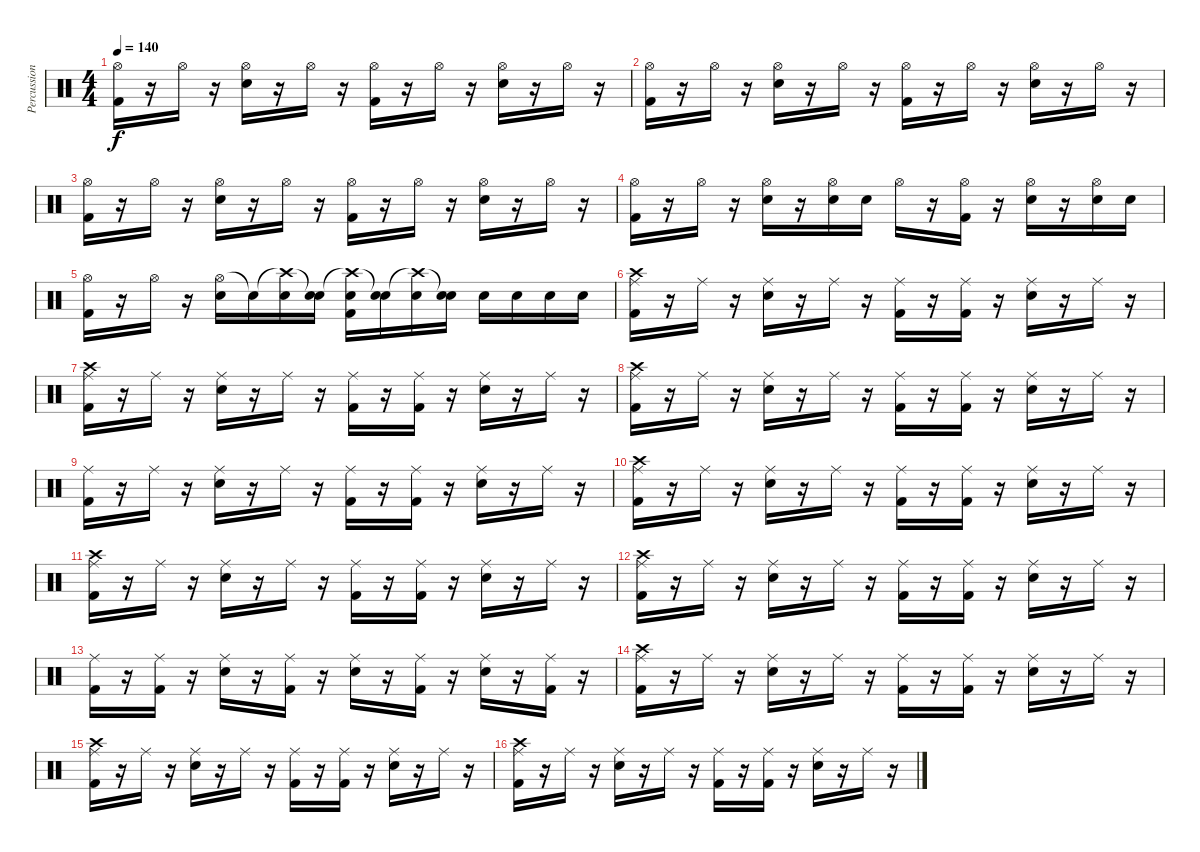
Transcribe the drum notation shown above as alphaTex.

\track ("Percussion" "Percussion") {instrument percussion}
\staff {score}
\articulation defaults
\ts (4 4)
\tempo 140
\clef neutral
\ks c
("Hi-Hat (open)" "Kick (hit) 2").16{dy f} r.16 "Hi-Hat (open)".16 r.16 ("Hi-Hat (open)" "Electric Snare (hit)").16 r.16 "Hi-Hat (open)".16 r.16 ("Hi-Hat (open)" "Kick (hit) 2").16 r.16 "Hi-Hat (open)".16 r.16 ("Hi-Hat (open)" "Electric Snare (hit)").16 r.16 "Hi-Hat (open)".16 r.16 |
("Hi-Hat (open)" "Kick (hit) 2").16 r.16 "Hi-Hat (open)".16 r.16 ("Hi-Hat (open)" "Electric Snare (hit)").16 r.16 "Hi-Hat (open)".16 r.16 ("Hi-Hat (open)" "Kick (hit) 2").16 r.16 "Hi-Hat (open)".16 r.16 ("Hi-Hat (open)" "Electric Snare (hit)").16 r.16 "Hi-Hat (open)".16 r.16 |
("Hi-Hat (open)" "Kick (hit) 2").16 r.16 "Hi-Hat (open)".16 r.16 ("Hi-Hat (open)" "Electric Snare (hit)").16 r.16 "Hi-Hat (open)".16 r.16 ("Hi-Hat (open)" "Kick (hit) 2").16 r.16 "Hi-Hat (open)".16 r.16 ("Hi-Hat (open)" "Electric Snare (hit)").16 r.16 "Hi-Hat (open)".16 r.16 |
("Hi-Hat (open)" "Kick (hit) 2").16 r.16 "Hi-Hat (open)".16 r.16 ("Hi-Hat (open)" "Electric Snare (hit)").16 r.16 ("Hi-Hat (open)" "Electric Snare (hit)").16 "Electric Snare (hit)".16 "Hi-Hat (open)".16 r.16 ("Hi-Hat (open)" "Kick (hit) 2").16 r.16 ("Hi-Hat (open)" "Electric Snare (hit)").16 r.16 ("Hi-Hat (open)" "Electric Snare (hit)").16 "Electric Snare (hit)".16 |
("Hi-Hat (open)" "Kick (hit) 2").16 r.16 "Hi-Hat (open)".16 r.16 ("Hi-Hat (open)" "Electric Snare (hit)").16 "Snare (hit)"{t}.16 ("Crash high (hit)"{t} "Electric Snare (hit)").16 ("Snare (hit)"{t} "Electric Snare (hit)").16 ("Crash high (hit)"{t} "Electric Snare (hit)" "Kick (hit) 2").16 ("Snare (hit)"{t} "Electric Snare (hit)").16 ("Crash high (hit)"{t} "Electric Snare (hit)").16 ("Snare (hit)"{t} "Electric Snare (hit)").16 "Electric Snare (hit)".16 "Electric Snare (hit)".16 "Electric Snare (hit)".16 "Electric Snare (hit)".16 |
("Ride (middle)" "Crash high (hit)" "Kick (hit) 2").16 r.16 "Ride (middle)".16 r.16 ("Ride (middle)" "Electric Snare (hit)").16 r.16 "Ride (middle)".16 r.16 ("Ride (middle)" "Kick (hit) 2").16 r.16 ("Ride (middle)" "Kick (hit) 2").16 r.16 ("Ride (middle)" "Electric Snare (hit)").16 r.16 "Ride (middle)".16 r.16 |
("Ride (middle)" "Crash high (hit)" "Kick (hit) 2").16 r.16 "Ride (middle)".16 r.16 ("Ride (middle)" "Electric Snare (hit)").16 r.16 "Ride (middle)".16 r.16 ("Ride (middle)" "Kick (hit) 2").16 r.16 ("Ride (middle)" "Kick (hit) 2").16 r.16 ("Ride (middle)" "Electric Snare (hit)").16 r.16 "Ride (middle)".16 r.16 |
("Ride (middle)" "Crash high (hit)" "Kick (hit) 2").16 r.16 "Ride (middle)".16 r.16 ("Ride (middle)" "Electric Snare (hit)").16 r.16 "Ride (middle)".16 r.16 ("Ride (middle)" "Kick (hit) 2").16 r.16 ("Ride (middle)" "Kick (hit) 2").16 r.16 ("Ride (middle)" "Electric Snare (hit)").16 r.16 "Ride (middle)".16 r.16 |
("Ride (middle)" "Kick (hit) 2").16 r.16 "Ride (middle)".16 r.16 ("Ride (middle)" "Electric Snare (hit)").16 r.16 "Ride (middle)".16 r.16 ("Ride (middle)" "Kick (hit) 2").16 r.16 ("Ride (middle)" "Kick (hit) 2").16 r.16 ("Ride (middle)" "Electric Snare (hit)").16 r.16 "Ride (middle)".16 r.16 |
("Ride (middle)" "Crash high (hit)" "Kick (hit) 2").16 r.16 "Ride (middle)".16 r.16 ("Ride (middle)" "Electric Snare (hit)").16 r.16 "Ride (middle)".16 r.16 ("Ride (middle)" "Kick (hit) 2").16 r.16 ("Ride (middle)" "Kick (hit) 2").16 r.16 ("Ride (middle)" "Electric Snare (hit)").16 r.16 "Ride (middle)".16 r.16 |
("Ride (middle)" "Crash high (hit)" "Kick (hit) 2").16 r.16 "Ride (middle)".16 r.16 ("Ride (middle)" "Electric Snare (hit)").16 r.16 "Ride (middle)".16 r.16 ("Ride (middle)" "Kick (hit) 2").16 r.16 ("Ride (middle)" "Kick (hit) 2").16 r.16 ("Ride (middle)" "Electric Snare (hit)").16 r.16 "Ride (middle)".16 r.16 |
("Ride (middle)" "Crash high (hit)" "Kick (hit) 2").16 r.16 "Ride (middle)".16 r.16 ("Ride (middle)" "Electric Snare (hit)").16 r.16 "Ride (middle)".16 r.16 ("Ride (middle)" "Kick (hit) 2").16 r.16 ("Ride (middle)" "Kick (hit) 2").16 r.16 ("Ride (middle)" "Electric Snare (hit)").16 r.16 "Ride (middle)".16 r.16 |
("Ride (middle)" "Kick (hit) 2").16 r.16 ("Ride (middle)" "Kick (hit) 2").16 r.16 ("Ride (middle)" "Electric Snare (hit)").16 r.16 ("Ride (middle)" "Kick (hit) 2").16 r.16 ("Ride (middle)" "Electric Snare (hit)").16 r.16 ("Ride (middle)" "Kick (hit) 2").16 r.16 ("Ride (middle)" "Electric Snare (hit)").16 r.16 ("Ride (middle)" "Kick (hit) 2").16 r.16 |
("Ride (middle)" "Crash high (hit)" "Kick (hit) 2").16 r.16 "Ride (middle)".16 r.16 ("Ride (middle)" "Electric Snare (hit)").16 r.16 "Ride (middle)".16 r.16 ("Ride (middle)" "Kick (hit) 2").16 r.16 ("Ride (middle)" "Kick (hit) 2").16 r.16 ("Ride (middle)" "Electric Snare (hit)").16 r.16 "Ride (middle)".16 r.16 |
("Ride (middle)" "Crash high (hit)" "Kick (hit) 2").16 r.16 "Ride (middle)".16 r.16 ("Ride (middle)" "Electric Snare (hit)").16 r.16 "Ride (middle)".16 r.16 ("Ride (middle)" "Kick (hit) 2").16 r.16 ("Ride (middle)" "Kick (hit) 2").16 r.16 ("Ride (middle)" "Electric Snare (hit)").16 r.16 "Ride (middle)".16 r.16 |
("Ride (middle)" "Crash high (hit)" "Kick (hit) 2").16 r.16 "Ride (middle)".16 r.16 ("Ride (middle)" "Electric Snare (hit)").16 r.16 "Ride (middle)".16 r.16 ("Ride (middle)" "Kick (hit) 2").16 r.16 ("Ride (middle)" "Kick (hit) 2").16 r.16 ("Ride (middle)" "Electric Snare (hit)").16 r.16 "Ride (middle)".16 r.16
